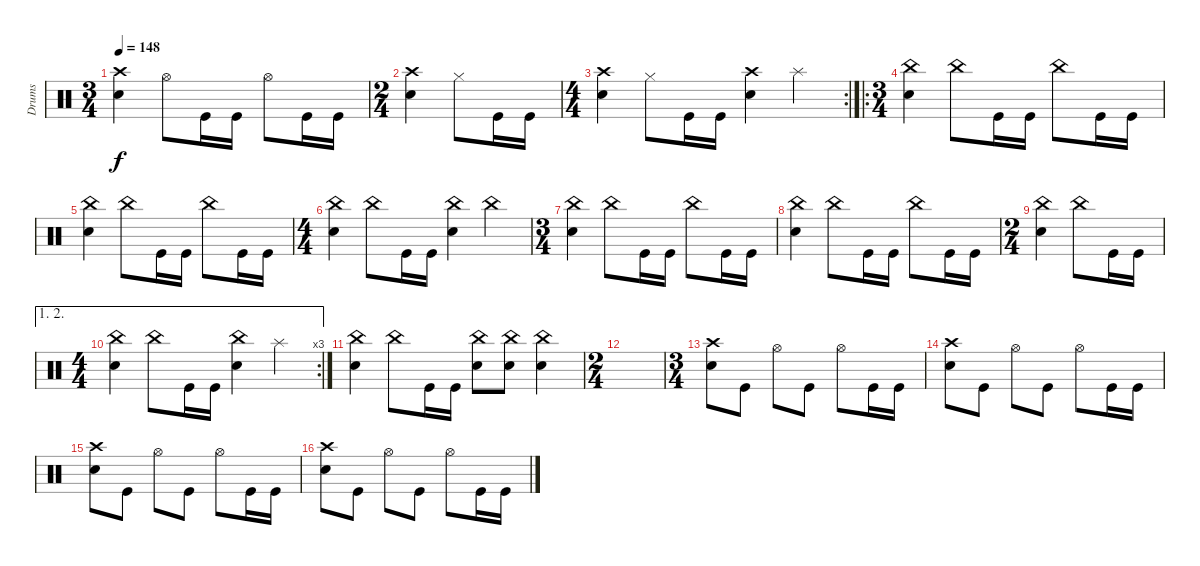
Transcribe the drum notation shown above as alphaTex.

\track ("Drums" "Drums") {instrument percussion}
\staff {score}
\articulation defaults
\ts (3 4)
\tempo 148
\clef neutral
\ks c
("Crash high (hit)" "Snare (hit) 2").4{dy f} "Hi-Hat (open)".8 "Kick (hit)".16 "Kick (hit)".16 "Hi-Hat (open)".8 "Kick (hit)".16 "Kick (hit)".16 |
\ts (2 4)
("Crash high (hit)" "Snare (hit) 2").4 "Hi-Hat (closed)".8 "Kick (hit)".16 "Kick (hit)".16 |
\rc 2
\ts (4 4)
("Crash high (hit)" "Snare (hit) 2").4 "Hi-Hat (closed)".8 "Kick (hit)".16 "Kick (hit)".16 ("Crash high (hit)" "Snare (hit) 2").4 "Splash (hit)".4 |
\ro
\ts (3 4)
("China (hit)" "Snare (hit) 2").4 "China (hit)".8 "Kick (hit)".16 "Kick (hit)".16 "China (hit)".8 "Kick (hit)".16 "Kick (hit)".16 |
("China (hit)" "Snare (hit) 2").4 "China (hit)".8 "Kick (hit)".16 "Kick (hit)".16 "China (hit)".8 "Kick (hit)".16 "Kick (hit)".16 |
\ts (4 4)
("China (hit)" "Snare (hit) 2").4 "China (hit)".8 "Kick (hit)".16 "Kick (hit)".16 ("China (hit)" "Snare (hit) 2").4 "China (hit)".4 |
\ts (3 4)
("China (hit)" "Snare (hit) 2").4 "China (hit)".8 "Kick (hit)".16 "Kick (hit)".16 "China (hit)".8 "Kick (hit)".16 "Kick (hit)".16 |
("China (hit)" "Snare (hit) 2").4 "China (hit)".8 "Kick (hit)".16 "Kick (hit)".16 "China (hit)".8 "Kick (hit)".16 "Kick (hit)".16 |
\ts (2 4)
("China (hit)" "Snare (hit) 2").4 "China (hit)".8 "Kick (hit)".16 "Kick (hit)".16 |
\ae (1 2)
\rc 3
\ts (4 4)
("China (hit)" "Snare (hit) 2").4 "China (hit)".8 "Kick (hit)".16 "Kick (hit)".16 ("China (hit)" "Snare (hit) 2").4 "Splash (hit)".4 |
("China (hit)" "Snare (hit) 2").4 "China (hit)".8 "Kick (hit)".16 "Kick (hit)".16 ("China (hit)" "Snare (hit) 2").8 ("China (hit)" "Snare (hit) 2").8 ("China (hit)" "Snare (hit) 2").4 |
\ts (2 4)
|
\ts (3 4)
("Crash high (hit)" "Snare (hit) 2").8 "Kick (hit)".8 "Hi-Hat (open)".8 "Kick (hit)".8 "Hi-Hat (open)".8 "Kick (hit)".16 "Kick (hit)".16 |
("Crash high (hit)" "Snare (hit) 2").8 "Kick (hit)".8 "Hi-Hat (open)".8 "Kick (hit)".8 "Hi-Hat (open)".8 "Kick (hit)".16 "Kick (hit)".16 |
("Crash high (hit)" "Snare (hit) 2").8 "Kick (hit)".8 "Hi-Hat (open)".8 "Kick (hit)".8 "Hi-Hat (open)".8 "Kick (hit)".16 "Kick (hit)".16 |
("Crash high (hit)" "Snare (hit) 2").8 "Kick (hit)".8 "Hi-Hat (open)".8 "Kick (hit)".8 "Hi-Hat (open)".8 "Kick (hit)".16 "Kick (hit)".16
